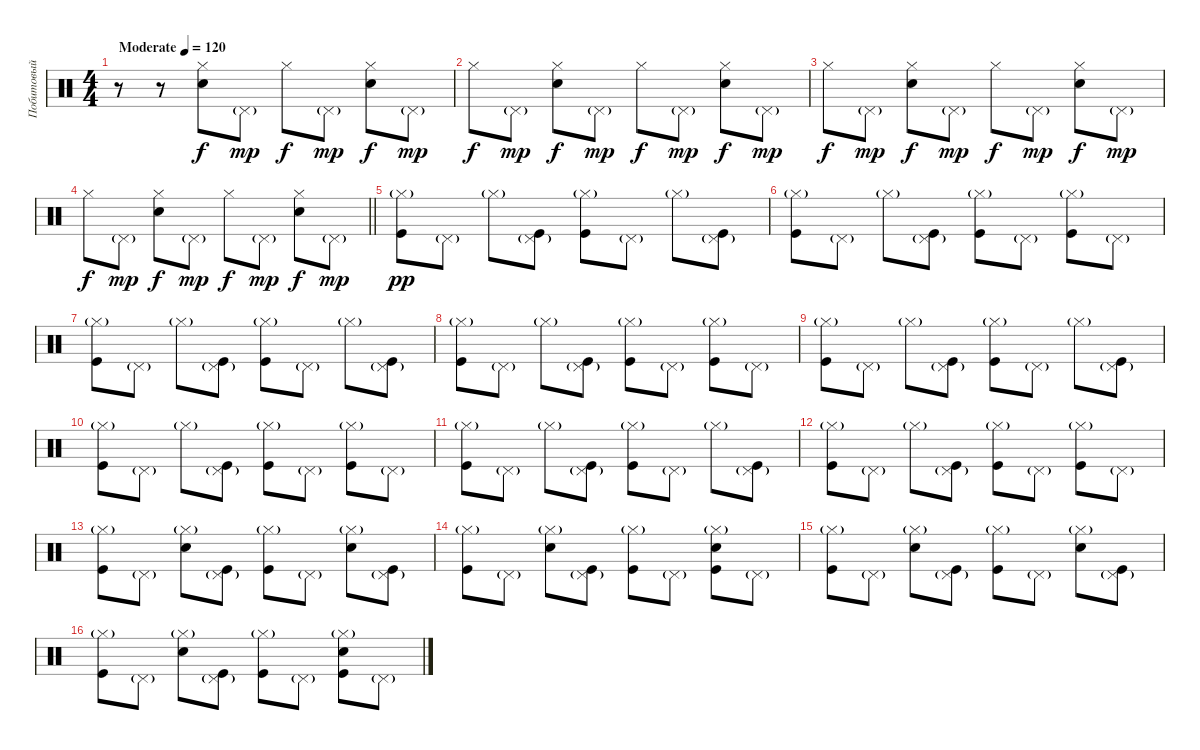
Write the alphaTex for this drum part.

\track ("Побитовый" "Побитовый") {instrument percussion}
\staff {score}
\articulation defaults
\ts (4 4)
\tempo (120 "Moderate")
\clef neutral
\ks c
r.8{dy f} r.8 ("Hi-Hat (closed)" "Electric Snare (hit)").8 "Pedal Hi-Hat (hit)"{g}.8{dy mp} "Hi-Hat (closed)".8{dy f} "Pedal Hi-Hat (hit)"{g}.8{dy mp} ("Hi-Hat (closed)" "Electric Snare (hit)").8{dy f} "Pedal Hi-Hat (hit)"{g}.8{dy mp} |
"Hi-Hat (closed)".8{dy f} "Pedal Hi-Hat (hit)"{g}.8{dy mp} ("Hi-Hat (closed)" "Electric Snare (hit)").8{dy f} "Pedal Hi-Hat (hit)"{g}.8{dy mp} "Hi-Hat (closed)".8{dy f} "Pedal Hi-Hat (hit)"{g}.8{dy mp} ("Hi-Hat (closed)" "Electric Snare (hit)").8{dy f} "Pedal Hi-Hat (hit)"{g}.8{dy mp} |
"Hi-Hat (closed)".8{dy f} "Pedal Hi-Hat (hit)"{g}.8{dy mp} ("Hi-Hat (closed)" "Electric Snare (hit)").8{dy f} "Pedal Hi-Hat (hit)"{g}.8{dy mp} "Hi-Hat (closed)".8{dy f} "Pedal Hi-Hat (hit)"{g}.8{dy mp} ("Hi-Hat (closed)" "Electric Snare (hit)").8{dy f} "Pedal Hi-Hat (hit)"{g}.8{dy mp} |
\barLineRight lightlight "Hi-Hat (closed)".8{dy f} "Pedal Hi-Hat (hit)"{g}.8{dy mp}
("Hi-Hat (closed)" "Electric Snare (hit)").8{dy f} "Pedal Hi-Hat (hit)"{g}.8{dy mp} "Hi-Hat (closed)".8{dy f} "Pedal Hi-Hat (hit)"{g}.8{dy mp} ("Hi-Hat (closed)" "Electric Snare (hit)").8{dy f} "Pedal Hi-Hat (hit)"{g}.8{dy mp} |
("Hi-Hat (closed)"{g} "Kick (hit)").8{dy pp} "Pedal Hi-Hat (hit)"{g}.8 "Hi-Hat (closed)"{g}.8 ("Pedal Hi-Hat (hit)"{g} "Kick (hit)").8 ("Hi-Hat (closed)"{g} "Kick (hit)").8 "Pedal Hi-Hat (hit)"{g}.8 "Hi-Hat (closed)"{g}.8 ("Pedal Hi-Hat (hit)"{g} "Kick (hit)").8 |
("Hi-Hat (closed)"{g} "Kick (hit)").8 "Pedal Hi-Hat (hit)"{g}.8 "Hi-Hat (closed)"{g}.8 ("Pedal Hi-Hat (hit)"{g} "Kick (hit)").8 ("Hi-Hat (closed)"{g} "Kick (hit)").8 "Pedal Hi-Hat (hit)"{g}.8 ("Hi-Hat (closed)"{g} "Kick (hit)").8 "Pedal Hi-Hat (hit)"{g}.8 |
("Hi-Hat (closed)"{g} "Kick (hit)").8 "Pedal Hi-Hat (hit)"{g}.8 "Hi-Hat (closed)"{g}.8 ("Pedal Hi-Hat (hit)"{g} "Kick (hit)").8 ("Hi-Hat (closed)"{g} "Kick (hit)").8 "Pedal Hi-Hat (hit)"{g}.8 "Hi-Hat (closed)"{g}.8 ("Pedal Hi-Hat (hit)"{g} "Kick (hit)").8 |
("Hi-Hat (closed)"{g} "Kick (hit)").8 "Pedal Hi-Hat (hit)"{g}.8 "Hi-Hat (closed)"{g}.8 ("Pedal Hi-Hat (hit)"{g} "Kick (hit)").8 ("Hi-Hat (closed)"{g} "Kick (hit)").8 "Pedal Hi-Hat (hit)"{g}.8 ("Hi-Hat (closed)"{g} "Kick (hit)").8 "Pedal Hi-Hat (hit)"{g}.8 |
("Hi-Hat (closed)"{g} "Kick (hit)").8 "Pedal Hi-Hat (hit)"{g}.8 "Hi-Hat (closed)"{g}.8 ("Pedal Hi-Hat (hit)"{g} "Kick (hit)").8 ("Hi-Hat (closed)"{g} "Kick (hit)").8 "Pedal Hi-Hat (hit)"{g}.8 "Hi-Hat (closed)"{g}.8 ("Pedal Hi-Hat (hit)"{g} "Kick (hit)").8 |
("Hi-Hat (closed)"{g} "Kick (hit)").8 "Pedal Hi-Hat (hit)"{g}.8 "Hi-Hat (closed)"{g}.8 ("Pedal Hi-Hat (hit)"{g} "Kick (hit)").8 ("Hi-Hat (closed)"{g} "Kick (hit)").8 "Pedal Hi-Hat (hit)"{g}.8 ("Hi-Hat (closed)"{g} "Kick (hit)").8 "Pedal Hi-Hat (hit)"{g}.8 |
("Hi-Hat (closed)"{g} "Kick (hit)").8 "Pedal Hi-Hat (hit)"{g}.8 "Hi-Hat (closed)"{g}.8 ("Pedal Hi-Hat (hit)"{g} "Kick (hit)").8 ("Hi-Hat (closed)"{g} "Kick (hit)").8 "Pedal Hi-Hat (hit)"{g}.8 "Hi-Hat (closed)"{g}.8 ("Pedal Hi-Hat (hit)"{g} "Kick (hit)").8 |
("Hi-Hat (closed)"{g} "Kick (hit)").8 "Pedal Hi-Hat (hit)"{g}.8 "Hi-Hat (closed)"{g}.8 ("Pedal Hi-Hat (hit)"{g} "Kick (hit)").8 ("Hi-Hat (closed)"{g} "Kick (hit)").8 "Pedal Hi-Hat (hit)"{g}.8 ("Hi-Hat (closed)"{g} "Kick (hit)").8 "Pedal Hi-Hat (hit)"{g}.8 |
("Hi-Hat (closed)"{g} "Kick (hit)").8 "Pedal Hi-Hat (hit)"{g}.8 ("Hi-Hat (closed)"{g} "Snare (hit) 2").8 ("Pedal Hi-Hat (hit)"{g} "Kick (hit)").8 ("Hi-Hat (closed)"{g} "Kick (hit)").8 "Pedal Hi-Hat (hit)"{g}.8 ("Hi-Hat (closed)"{g} "Snare (hit) 2").8 ("Pedal Hi-Hat (hit)"{g} "Kick (hit)").8 |
("Hi-Hat (closed)"{g} "Kick (hit)").8 "Pedal Hi-Hat (hit)"{g}.8 ("Hi-Hat (closed)"{g} "Snare (hit) 2").8 ("Pedal Hi-Hat (hit)"{g} "Kick (hit)").8 ("Hi-Hat (closed)"{g} "Kick (hit)").8 "Pedal Hi-Hat (hit)"{g}.8 ("Hi-Hat (closed)"{g} "Snare (hit) 2" "Kick (hit)").8 "Pedal Hi-Hat (hit)"{g}.8 |
("Hi-Hat (closed)"{g} "Kick (hit)").8 "Pedal Hi-Hat (hit)"{g}.8 ("Hi-Hat (closed)"{g} "Snare (hit) 2").8 ("Pedal Hi-Hat (hit)"{g} "Kick (hit)").8 ("Hi-Hat (closed)"{g} "Kick (hit)").8 "Pedal Hi-Hat (hit)"{g}.8 ("Hi-Hat (closed)"{g} "Snare (hit) 2").8 ("Pedal Hi-Hat (hit)"{g} "Kick (hit)").8 |
("Hi-Hat (closed)"{g} "Kick (hit)").8 "Pedal Hi-Hat (hit)"{g}.8 ("Hi-Hat (closed)"{g} "Snare (hit) 2").8 ("Pedal Hi-Hat (hit)"{g} "Kick (hit)").8 ("Hi-Hat (closed)"{g} "Kick (hit)").8 "Pedal Hi-Hat (hit)"{g}.8 ("Hi-Hat (closed)"{g} "Snare (hit) 2" "Kick (hit)").8 "Pedal Hi-Hat (hit)"{g}.8
